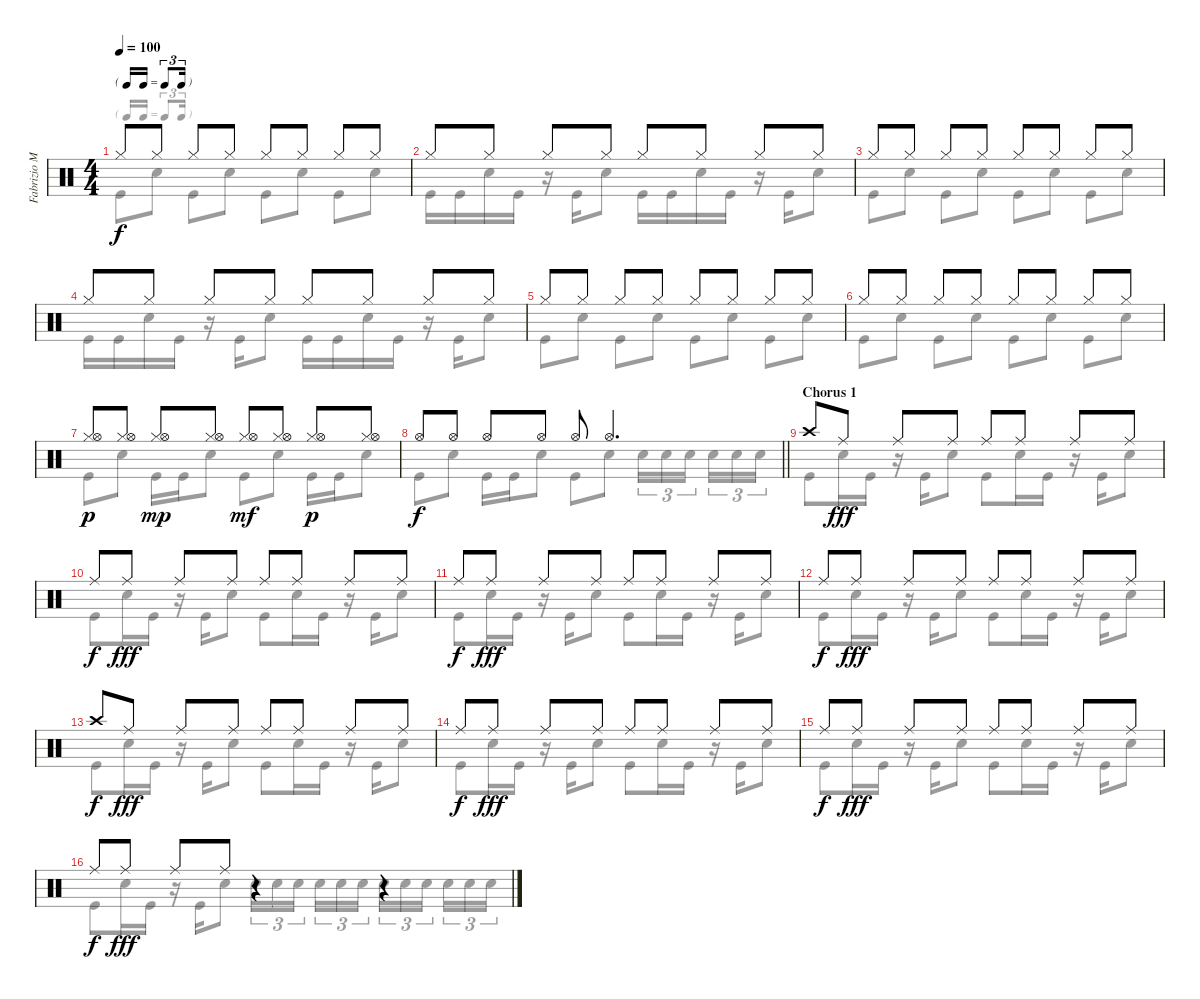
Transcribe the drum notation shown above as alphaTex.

\track ("Fabrizio Moretti (Drum)" "Fabrizio M") {instrument percussion}
\staff {score}
\articulation defaults
\voice
\ts (4 4)
\tf triplet16th
\tempo 100
\clef neutral
\ks c "Hi-Hat (closed)".8{dy f} "Hi-Hat (closed)".8 "Hi-Hat (closed)".8 "Hi-Hat (closed)".8 "Hi-Hat (closed)".8 "Hi-Hat (closed)".8 "Hi-Hat (closed)".8 "Hi-Hat (closed)".8
|
"Hi-Hat (closed)".8 "Hi-Hat (closed)".8 "Hi-Hat (closed)".8 "Hi-Hat (closed)".8 "Hi-Hat (closed)".8 "Hi-Hat (closed)".8 "Hi-Hat (closed)".8 "Hi-Hat (closed)".8 |
"Hi-Hat (closed)".8 "Hi-Hat (closed)".8 "Hi-Hat (closed)".8 "Hi-Hat (closed)".8 "Hi-Hat (closed)".8 "Hi-Hat (closed)".8 "Hi-Hat (closed)".8 "Hi-Hat (closed)".8 |
"Hi-Hat (closed)".8 "Hi-Hat (closed)".8 "Hi-Hat (closed)".8 "Hi-Hat (closed)".8 "Hi-Hat (closed)".8 "Hi-Hat (closed)".8 "Hi-Hat (closed)".8 "Hi-Hat (closed)".8 |
"Hi-Hat (closed)".8 "Hi-Hat (closed)".8 "Hi-Hat (closed)".8 "Hi-Hat (closed)".8 "Hi-Hat (closed)".8 "Hi-Hat (closed)".8 "Hi-Hat (closed)".8 "Hi-Hat (closed)".8 |
"Hi-Hat (closed)".8 "Hi-Hat (closed)".8 "Hi-Hat (closed)".8 "Hi-Hat (closed)".8 "Hi-Hat (closed)".8 "Hi-Hat (closed)".8 "Hi-Hat (closed)".8 "Hi-Hat (closed)".8 |
("Hi-Hat (closed)" "Hi-Hat (open)").8{dy p} ("Hi-Hat (closed)" "Hi-Hat (open)").8 ("Hi-Hat (closed)" "Hi-Hat (open)").8{dy mp} ("Hi-Hat (closed)" "Hi-Hat (open)").8 ("Hi-Hat (closed)" "Hi-Hat (open)").8{dy mf} ("Hi-Hat (closed)" "Hi-Hat (open)").8 ("Hi-Hat (closed)" "Hi-Hat (open)").8{dy p} ("Hi-Hat (closed)" "Hi-Hat (open)").8 |
\barLineRight lightlight "Hi-Hat (open)".8{dy f} "Hi-Hat (open)".8 "Hi-Hat (open)".8 "Hi-Hat (open)".8 "Hi-Hat (open)".8 "Hi-Hat (open)".4{d}
|
\section ("" "Chorus 1")
"Crash high (hit)".8 "Ride (middle)".8{dy fff} "Ride (middle)".8 "Ride (middle)".8 "Ride (middle)".8 "Ride (middle)".8 "Ride (middle)".8 "Ride (middle)".8 |
"Ride (middle)".8{dy f} "Ride (middle)".8{dy fff} "Ride (middle)".8 "Ride (middle)".8 "Ride (middle)".8 "Ride (middle)".8 "Ride (middle)".8 "Ride (middle)".8 |
"Ride (middle)".8{dy f} "Ride (middle)".8{dy fff} "Ride (middle)".8 "Ride (middle)".8 "Ride (middle)".8 "Ride (middle)".8 "Ride (middle)".8 "Ride (middle)".8 |
"Ride (middle)".8{dy f} "Ride (middle)".8{dy fff} "Ride (middle)".8 "Ride (middle)".8 "Ride (middle)".8 "Ride (middle)".8 "Ride (middle)".8 "Ride (middle)".8 |
"Crash high (hit)".8{dy f} "Ride (middle)".8{dy fff} "Ride (middle)".8 "Ride (middle)".8 "Ride (middle)".8 "Ride (middle)".8 "Ride (middle)".8 "Ride (middle)".8 |
"Ride (middle)".8{dy f} "Ride (middle)".8{dy fff} "Ride (middle)".8 "Ride (middle)".8 "Ride (middle)".8 "Ride (middle)".8 "Ride (middle)".8 "Ride (middle)".8 |
"Ride (middle)".8{dy f} "Ride (middle)".8{dy fff} "Ride (middle)".8 "Ride (middle)".8 "Ride (middle)".8 "Ride (middle)".8 "Ride (middle)".8 "Ride (middle)".8 |
"Ride (middle)".8{dy f} "Ride (middle)".8{dy fff} "Ride (middle)".8 "Ride (middle)".8 r.4 r.4
\voice
\clef neutral
\ottava regular
\simile none
\ks c "Kick (hit)".8{dy f} "Snare (hit) 2".8 "Kick (hit)".8 "Snare (hit) 2".8 "Kick (hit)".8 "Snare (hit) 2".8 "Kick (hit)".8 "Snare (hit) 2".8
|
"Kick (hit)".16 "Kick (hit)".16 "Snare (hit) 2".16 "Kick (hit)".16 r.16 "Kick (hit)".16 "Snare (hit) 2".8 "Kick (hit)".16 "Kick (hit)".16 "Snare (hit) 2".16 "Kick (hit)".16 r.16 "Kick (hit)".16 "Snare (hit) 2".8 |
"Kick (hit)".8 "Snare (hit) 2".8 "Kick (hit)".8 "Snare (hit) 2".8 "Kick (hit)".8 "Snare (hit) 2".8 "Kick (hit)".8 "Snare (hit) 2".8 |
"Kick (hit)".16 "Kick (hit)".16 "Snare (hit) 2".16 "Kick (hit)".16 r.16 "Kick (hit)".16 "Snare (hit) 2".8 "Kick (hit)".16 "Kick (hit)".16 "Snare (hit) 2".16 "Kick (hit)".16 r.16 "Kick (hit)".16 "Snare (hit) 2".8 |
"Kick (hit)".8 "Snare (hit) 2".8 "Kick (hit)".8 "Snare (hit) 2".8 "Kick (hit)".8 "Snare (hit) 2".8 "Kick (hit)".8 "Snare (hit) 2".8 |
"Kick (hit)".8 "Snare (hit) 2".8 "Kick (hit)".8 "Snare (hit) 2".8 "Kick (hit)".8 "Snare (hit) 2".8 "Kick (hit)".8 "Snare (hit) 2".8 |
"Kick (hit)".8 "Snare (hit) 2".8 "Kick (hit)".16 "Kick (hit)".16 "Snare (hit) 2".8 "Kick (hit)".8 "Snare (hit) 2".8 "Kick (hit)".16 "Kick (hit)".16 "Snare (hit) 2".8 |
\barLineRight lightlight "Kick (hit)".8 "Snare (hit) 2".8 "Kick (hit)".16 "Kick (hit)".16 "Snare (hit) 2".8 "Kick (hit)".8 "Snare (hit) 2".8 "Snare (hit) 2".16{tu (3 2)} "Snare (hit) 2".16{tu (3 2)} "Snare (hit) 2".16{tu (3 2) beam splitsecondary} "Snare (hit) 2".16{tu (3 2)} "Snare (hit) 2".16{tu (3 2)} "Snare (hit) 2".16{tu (3 2)}
|
"Kick (hit)".8 "Snare (hit) 2".16 "Kick (hit)".16 r.16 "Kick (hit)".16 "Snare (hit) 2".8 "Kick (hit)".8 "Snare (hit) 2".16 "Kick (hit)".16 r.16 "Kick (hit)".16 "Snare (hit) 2".8 |
"Kick (hit)".8 "Snare (hit) 2".16 "Kick (hit)".16 r.16 "Kick (hit)".16 "Snare (hit) 2".8 "Kick (hit)".8 "Snare (hit) 2".16 "Kick (hit)".16 r.16 "Kick (hit)".16 "Snare (hit) 2".8 |
"Kick (hit)".8 "Snare (hit) 2".16 "Kick (hit)".16 r.16 "Kick (hit)".16 "Snare (hit) 2".8 "Kick (hit)".8 "Snare (hit) 2".16 "Kick (hit)".16 r.16 "Kick (hit)".16 "Snare (hit) 2".8 |
"Kick (hit)".8 "Snare (hit) 2".16 "Kick (hit)".16 r.16 "Kick (hit)".16 "Snare (hit) 2".8 "Kick (hit)".8 "Snare (hit) 2".16 "Kick (hit)".16 r.16 "Kick (hit)".16 "Snare (hit) 2".8 |
"Kick (hit)".8 "Snare (hit) 2".16 "Kick (hit)".16 r.16 "Kick (hit)".16 "Snare (hit) 2".8 "Kick (hit)".8 "Snare (hit) 2".16 "Kick (hit)".16 r.16 "Kick (hit)".16 "Snare (hit) 2".8 |
"Kick (hit)".8 "Snare (hit) 2".16 "Kick (hit)".16 r.16 "Kick (hit)".16 "Snare (hit) 2".8 "Kick (hit)".8 "Snare (hit) 2".16 "Kick (hit)".16 r.16 "Kick (hit)".16 "Snare (hit) 2".8 |
"Kick (hit)".8 "Snare (hit) 2".16 "Kick (hit)".16 r.16 "Kick (hit)".16 "Snare (hit) 2".8 "Kick (hit)".8 "Snare (hit) 2".16 "Kick (hit)".16 r.16 "Kick (hit)".16 "Snare (hit) 2".8 |
"Kick (hit)".8 "Snare (hit) 2".16 "Kick (hit)".16 r.16 "Kick (hit)".16 "Snare (hit) 2".8 "Snare (hit) 2".16{tu (3 2)} "Snare (hit) 2".16{tu (3 2)} "Snare (hit) 2".16{tu (3 2) beam splitsecondary} "Snare (hit) 2".16{tu (3 2)} "Snare (hit) 2".16{tu (3 2)} "Snare (hit) 2".16{tu (3 2)} "Snare (hit) 2".16{tu (3 2)} "Snare (hit) 2".16{tu (3 2)} "Snare (hit) 2".16{tu (3 2) beam splitsecondary} "Snare (hit) 2".16{tu (3 2)} "Snare (hit) 2".16{tu (3 2)} "Snare (hit) 2".16{tu (3 2)}
